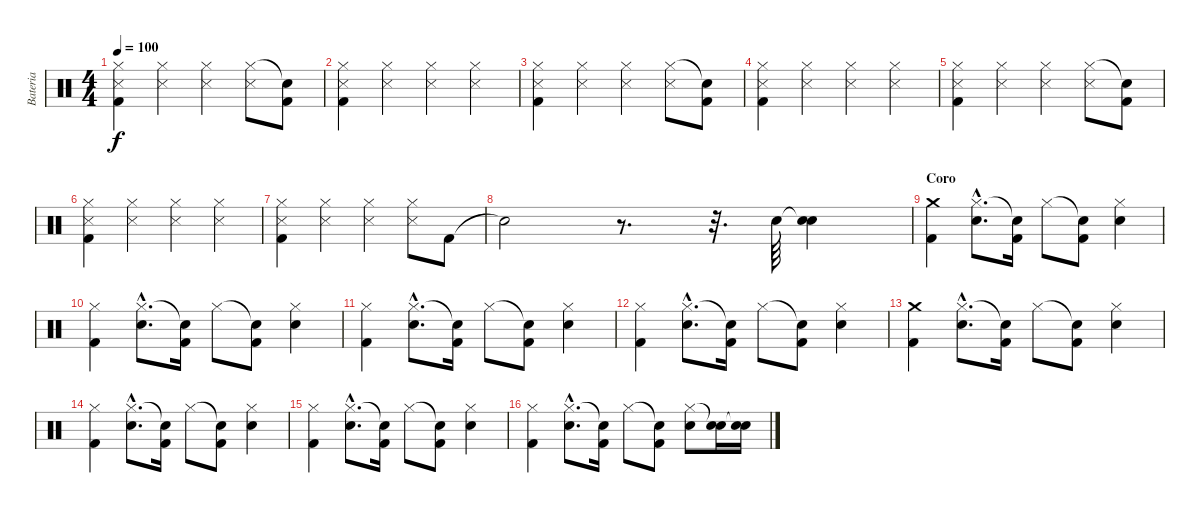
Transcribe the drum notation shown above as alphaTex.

\track ("Bateria" "Bateria") {instrument percussion}
\staff {score}
\articulation defaults
\ts (4 4)
\tempo 100
\clef neutral
\ks c
("Hi-Hat (closed)" "Snare (side stick) 3" "Kick (hit) 2").4{dy f} ("Hi-Hat (closed)" "Snare (side stick) 3").4 ("Hi-Hat (closed)" "Snare (side stick) 3").4 ("Hi-Hat (closed)" "Snare (side stick) 3").8 ("Snare (hit)"{t} "Kick (hit) 2").8 |
("Hi-Hat (closed)" "Snare (side stick) 3" "Kick (hit) 2").4 ("Hi-Hat (closed)" "Snare (side stick) 3").4 ("Hi-Hat (closed)" "Snare (side stick) 3").4 ("Hi-Hat (closed)" "Snare (side stick) 3").4 |
("Hi-Hat (closed)" "Snare (side stick) 3" "Kick (hit) 2").4 ("Hi-Hat (closed)" "Snare (side stick) 3").4 ("Hi-Hat (closed)" "Snare (side stick) 3").4 ("Hi-Hat (closed)" "Snare (side stick) 3").8 ("Snare (hit)"{t} "Kick (hit) 2").8 |
("Hi-Hat (closed)" "Snare (side stick) 3" "Kick (hit) 2").4 ("Hi-Hat (closed)" "Snare (side stick) 3").4 ("Hi-Hat (closed)" "Snare (side stick) 3").4 ("Hi-Hat (closed)" "Snare (side stick) 3").4 |
("Hi-Hat (closed)" "Snare (side stick) 3" "Kick (hit) 2").4 ("Hi-Hat (closed)" "Snare (side stick) 3").4 ("Hi-Hat (closed)" "Snare (side stick) 3").4 ("Hi-Hat (closed)" "Snare (side stick) 3").8 ("Snare (hit)"{t} "Kick (hit) 2").8 |
("Hi-Hat (closed)" "Snare (side stick) 3" "Kick (hit) 2").4 ("Hi-Hat (closed)" "Snare (side stick) 3").4 ("Hi-Hat (closed)" "Snare (side stick) 3").4 ("Hi-Hat (closed)" "Snare (side stick) 3").4 |
("Hi-Hat (closed)" "Snare (side stick) 3" "Kick (hit) 2").4 ("Hi-Hat (closed)" "Snare (side stick) 3").4 ("Hi-Hat (closed)" "Snare (side stick) 3").4 ("Hi-Hat (closed)" "Snare (side stick) 3").8 "Kick (hit) 2".8 |
"Snare (hit)"{t}.2 r.8{d} r.32{d} "Electric Snare (hit)".64 ("Electric Snare (hit)"{t} "Electric Snare (hit)").4 |
\section ("" "Coro")
("Crash medium (hit)" "Kick (hit) 2").4 ("Hi-Hat (closed)"{hac} "Electric Snare (hit)"{hac}).8{d} ("Snare (hit)"{t} "Kick (hit) 2").16 "Hi-Hat (closed)".8 ("Snare (hit)"{t} "Kick (hit) 2").8 ("Hi-Hat (closed)" "Electric Snare (hit)").4 |
("Hi-Hat (closed)" "Kick (hit) 2").4 ("Hi-Hat (closed)"{hac} "Electric Snare (hit)"{hac}).8{d} ("Snare (hit)"{t} "Kick (hit) 2").16 "Hi-Hat (closed)".8 ("Snare (hit)"{t} "Kick (hit) 2").8 ("Hi-Hat (closed)" "Electric Snare (hit)").4 |
("Hi-Hat (closed)" "Kick (hit) 2").4 ("Hi-Hat (closed)"{hac} "Electric Snare (hit)"{hac}).8{d} ("Snare (hit)"{t} "Kick (hit) 2").16 "Hi-Hat (closed)".8 ("Snare (hit)"{t} "Kick (hit) 2").8 ("Hi-Hat (closed)" "Electric Snare (hit)").4 |
("Hi-Hat (closed)" "Kick (hit) 2").4 ("Hi-Hat (closed)"{hac} "Electric Snare (hit)"{hac}).8{d} ("Snare (hit)"{t} "Kick (hit) 2").16 "Hi-Hat (closed)".8 ("Snare (hit)"{t} "Kick (hit) 2").8 ("Hi-Hat (closed)" "Electric Snare (hit)").4 |
("Crash medium (hit)" "Kick (hit) 2").4 ("Hi-Hat (closed)"{hac} "Electric Snare (hit)"{hac}).8{d} ("Snare (hit)"{t} "Kick (hit) 2").16 "Hi-Hat (closed)".8 ("Snare (hit)"{t} "Kick (hit) 2").8 ("Hi-Hat (closed)" "Electric Snare (hit)").4 |
("Hi-Hat (closed)" "Kick (hit) 2").4 ("Hi-Hat (closed)"{hac} "Electric Snare (hit)"{hac}).8{d} ("Snare (hit)"{t} "Kick (hit) 2").16 "Hi-Hat (closed)".8 ("Snare (hit)"{t} "Kick (hit) 2").8 ("Hi-Hat (closed)" "Electric Snare (hit)").4 |
("Hi-Hat (closed)" "Kick (hit) 2").4 ("Hi-Hat (closed)"{hac} "Electric Snare (hit)"{hac}).8{d} ("Snare (hit)"{t} "Kick (hit) 2").16 "Hi-Hat (closed)".8 ("Snare (hit)"{t} "Kick (hit) 2").8 ("Hi-Hat (closed)" "Electric Snare (hit)").4 |
("Hi-Hat (closed)" "Kick (hit) 2").4 ("Hi-Hat (closed)"{hac} "Electric Snare (hit)"{hac}).8{d} ("Snare (hit)"{t} "Kick (hit) 2").16 "Hi-Hat (closed)".8 ("Snare (hit)"{t} "Kick (hit) 2").8 ("Hi-Hat (closed)" "Electric Snare (hit)").8 ("Snare (hit)"{t} "Electric Snare (hit)").16 ("Snare (hit)"{t} "Electric Snare (hit)").16
